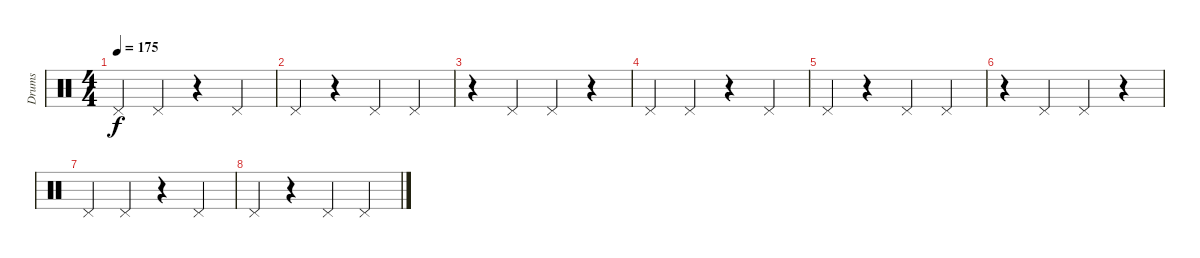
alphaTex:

\track ("Drums" "Drums") {instrument percussion}
\staff {score}
\articulation defaults
\ts (4 4)
\tempo 175
\clef neutral
\ks c "Pedal Hi-Hat (hit)".4{dy f} "Pedal Hi-Hat (hit)".4
r.4 "Pedal Hi-Hat (hit)".4 |
"Pedal Hi-Hat (hit)".4 r.4 "Pedal Hi-Hat (hit)".4 "Pedal Hi-Hat (hit)".4 |
r.4 "Pedal Hi-Hat (hit)".4 "Pedal Hi-Hat (hit)".4 r.4 |
"Pedal Hi-Hat (hit)".4 "Pedal Hi-Hat (hit)".4 r.4 "Pedal Hi-Hat (hit)".4 |
"Pedal Hi-Hat (hit)".4 r.4 "Pedal Hi-Hat (hit)".4 "Pedal Hi-Hat (hit)".4 |
r.4 "Pedal Hi-Hat (hit)".4 "Pedal Hi-Hat (hit)".4 r.4 |
"Pedal Hi-Hat (hit)".4 "Pedal Hi-Hat (hit)".4 r.4 "Pedal Hi-Hat (hit)".4 |
"Pedal Hi-Hat (hit)".4 r.4 "Pedal Hi-Hat (hit)".4 "Pedal Hi-Hat (hit)".4
